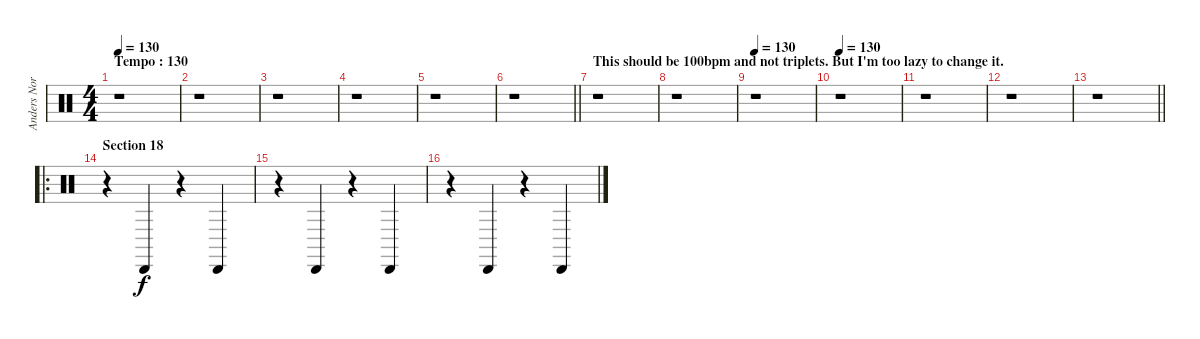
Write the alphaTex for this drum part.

\track ("Anders Nordin" "Anders Nor") {instrument percussion}
\staff {score}
\articulation defaults
\ts (4 4)
\section ("" "Tempo : 130")
\tempo 130
\clef neutral
\ks c
r.1{dy f} |
r.1 |
r.1 |
r.1 |
r.1 |
\barLineRight lightlight
r.1 |
\section ("" "This should be 100bpm and not triplets. But I'm too lazy to change it.")
r.1 |
r.1 |
\tempo 115
\tempo 130
r.1 |
\tempo 130
r.1 |
r.1 |
r.1 |
\barLineRight lightlight
r.1 |
\ro
\section ("" "Section 18")
r.4 "Cabasa (hit)".4 r.4 "Cabasa (hit)".4 |
r.4 "Cabasa (hit)".4 r.4 "Cabasa (hit)".4 |
r.4 "Cabasa (hit)".4 r.4 "Cabasa (hit)".4
